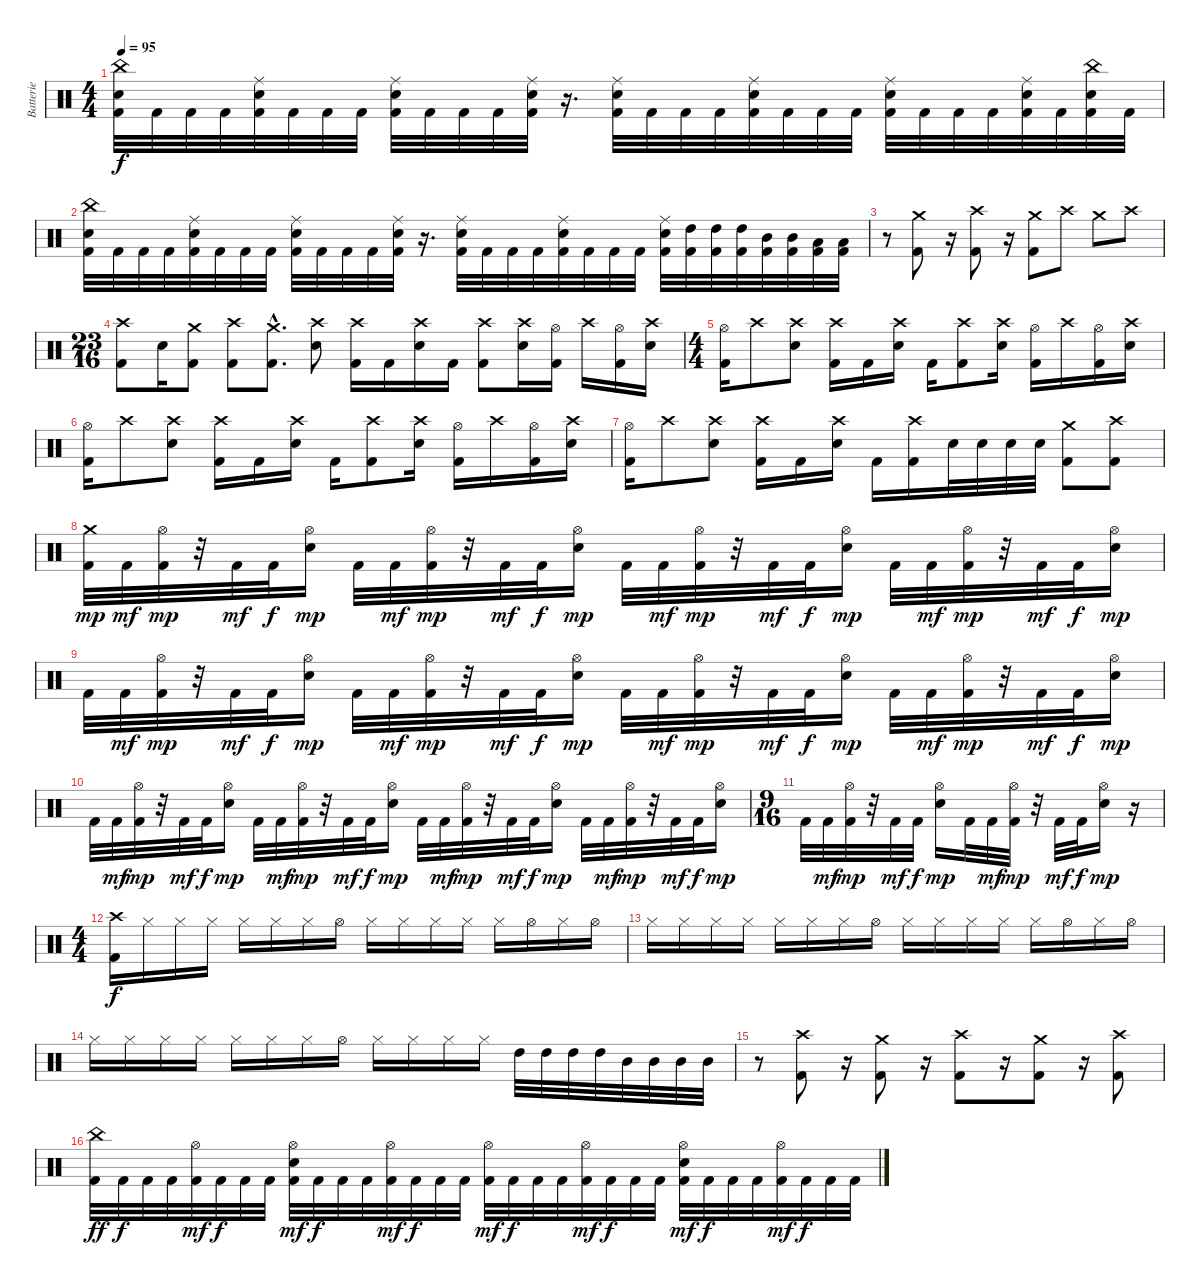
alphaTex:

\track ("Batterie" "Batterie") {instrument percussion}
\staff {score}
\articulation defaults
\ts (4 4)
\tempo 95
\clef neutral
\ks c
("China (hit)" "Electric Snare (hit)" "Kick (hit) 2").32{dy f} "Kick (hit) 2".32 "Kick (hit) 2".32 "Kick (hit) 2".32 ("Ride (middle)" "Electric Snare (hit)" "Kick (hit) 2").32 "Kick (hit) 2".32 "Kick (hit) 2".32 "Kick (hit) 2".32 ("Ride (middle)" "Electric Snare (hit)" "Kick (hit) 2").32 "Kick (hit) 2".32 "Kick (hit) 2".32 "Kick (hit) 2".32 ("Ride (middle)" "Electric Snare (hit)" "Kick (hit) 2").32 r.16{d} ("Ride (middle)" "Electric Snare (hit)" "Kick (hit) 2").32 "Kick (hit) 2".32 "Kick (hit) 2".32 "Kick (hit) 2".32 ("Ride (middle)" "Electric Snare (hit)" "Kick (hit) 2").32 "Kick (hit) 2".32 "Kick (hit) 2".32 "Kick (hit) 2".32 ("Ride (middle)" "Electric Snare (hit)" "Kick (hit) 2").32 "Kick (hit) 2".32 "Kick (hit) 2".32 "Kick (hit) 2".32 ("Ride (middle)" "Electric Snare (hit)" "Kick (hit) 2").32 "Kick (hit) 2".32 ("China (hit)" "Electric Snare (hit)" "Kick (hit) 2").32 "Kick (hit) 2".32 |
("China (hit)" "Electric Snare (hit)" "Kick (hit) 2").32 "Kick (hit) 2".32 "Kick (hit) 2".32 "Kick (hit) 2".32 ("Ride (middle)" "Electric Snare (hit)" "Kick (hit) 2").32 "Kick (hit) 2".32 "Kick (hit) 2".32 "Kick (hit) 2".32 ("Ride (middle)" "Electric Snare (hit)" "Kick (hit) 2").32 "Kick (hit) 2".32 "Kick (hit) 2".32 "Kick (hit) 2".32 ("Ride (middle)" "Electric Snare (hit)" "Kick (hit) 2").32 r.16{d} ("Ride (middle)" "Electric Snare (hit)" "Kick (hit) 2").32 "Kick (hit) 2".32 "Kick (hit) 2".32 "Kick (hit) 2".32 ("Ride (middle)" "Electric Snare (hit)" "Kick (hit) 2").32 "Kick (hit) 2".32 "Kick (hit) 2".32 "Kick (hit) 2".32 ("Ride (middle)" "Electric Snare (hit)" "Kick (hit) 2").32 ("High Tom (hit)" "Kick (hit) 2").32 ("High Tom (hit)" "Kick (hit) 2").32 ("High Tom (hit)" "Kick (hit) 2").32 ("Mid Tom (hit)" "Kick (hit) 2").32 ("Mid Tom (hit)" "Kick (hit) 2").32 ("Low Tom (hit)" "Kick (hit) 2").32 ("Low Tom (hit)" "Kick (hit) 2").32 |
r.8 ("Crash medium (hit)" "Kick (hit) 2").8 r.16 ("Crash high (hit)" "Kick (hit) 2").8 r.16 ("Crash medium (hit)" "Kick (hit) 2").8 "Crash high (hit)".8 "Crash medium (hit)".8 "Crash high (hit)".8 |
\ts (23 16)
("Crash high (hit)" "Kick (hit) 2").8 "Electric Snare (hit)".16 ("Crash medium (hit)" "Kick (hit) 2").8 ("Crash high (hit)" "Kick (hit) 2").8 ("Crash medium (hit)"{hac} "Kick (hit) 2"{hac}).8{d} ("Crash high (hit)" "Electric Snare (hit)").8 ("Crash high (hit)" "Kick (hit) 2").16 "Kick (hit) 2".16 ("Crash high (hit)" "Electric Snare (hit)").16 "Kick (hit) 2".16 ("Crash high (hit)" "Kick (hit) 2").8 ("Crash high (hit)" "Electric Snare (hit)").16 ("Hi-Hat (open)" "Kick (hit) 2").16 "Crash high (hit)".16 ("Hi-Hat (open)" "Kick (hit) 2").16 ("Crash high (hit)" "Electric Snare (hit)").16 |
\ts (4 4)
("Hi-Hat (open)" "Kick (hit) 2").16 "Crash high (hit)".8 ("Crash high (hit)" "Electric Snare (hit)").8 ("Crash high (hit)" "Kick (hit) 2").16 "Kick (hit) 2".16 ("Crash high (hit)" "Electric Snare (hit)").16 "Kick (hit) 2".16 ("Crash high (hit)" "Kick (hit) 2").8 ("Crash high (hit)" "Electric Snare (hit)").16 ("Hi-Hat (open)" "Kick (hit) 2").16 "Crash high (hit)".16 ("Hi-Hat (open)" "Kick (hit) 2").16 ("Crash high (hit)" "Electric Snare (hit)").16 |
("Hi-Hat (open)" "Kick (hit) 2").16 "Crash high (hit)".8 ("Crash high (hit)" "Electric Snare (hit)").8 ("Crash high (hit)" "Kick (hit) 2").16 "Kick (hit) 2".16 ("Crash high (hit)" "Electric Snare (hit)").16 "Kick (hit) 2".16 ("Crash high (hit)" "Kick (hit) 2").8 ("Crash high (hit)" "Electric Snare (hit)").16 ("Hi-Hat (open)" "Kick (hit) 2").16 "Crash high (hit)".16 ("Hi-Hat (open)" "Kick (hit) 2").16 ("Crash high (hit)" "Electric Snare (hit)").16 |
("Hi-Hat (open)" "Kick (hit) 2").16 "Crash high (hit)".8 ("Crash high (hit)" "Electric Snare (hit)").8 ("Crash high (hit)" "Kick (hit) 2").16 "Kick (hit) 2".16 ("Crash high (hit)" "Electric Snare (hit)").16 "Kick (hit) 2".16 ("Crash high (hit)" "Kick (hit) 2").16 "Electric Snare (hit)".32 "Electric Snare (hit)".32 "Electric Snare (hit)".32 "Electric Snare (hit)".32 ("Crash medium (hit)" "Kick (hit) 2").8 ("Crash high (hit)" "Kick (hit) 2").8 |
("Crash medium (hit)" "Kick (hit) 2").32{dy mp} "Kick (hit) 2".32{dy mf} ("Hi-Hat (open)" "Kick (hit) 2").32{dy mp} r.32 "Kick (hit) 2".32{dy mf} "Kick (hit) 2".32{dy f} ("Hi-Hat (open)" "Electric Snare (hit)").16{dy mp} "Kick (hit) 2".32 "Kick (hit) 2".32{dy mf} ("Hi-Hat (open)" "Kick (hit) 2").32{dy mp} r.32 "Kick (hit) 2".32{dy mf} "Kick (hit) 2".32{dy f} ("Hi-Hat (open)" "Electric Snare (hit)").16{dy mp} "Kick (hit) 2".32 "Kick (hit) 2".32{dy mf} ("Hi-Hat (open)" "Kick (hit) 2").32{dy mp} r.32 "Kick (hit) 2".32{dy mf} "Kick (hit) 2".32{dy f} ("Hi-Hat (open)" "Electric Snare (hit)").16{dy mp} "Kick (hit) 2".32 "Kick (hit) 2".32{dy mf} ("Hi-Hat (open)" "Kick (hit) 2").32{dy mp} r.32 "Kick (hit) 2".32{dy mf} "Kick (hit) 2".32{dy f} ("Hi-Hat (open)" "Electric Snare (hit)").16{dy mp} |
"Kick (hit) 2".32 "Kick (hit) 2".32{dy mf} ("Hi-Hat (open)" "Kick (hit) 2").32{dy mp} r.32 "Kick (hit) 2".32{dy mf} "Kick (hit) 2".32{dy f} ("Hi-Hat (open)" "Electric Snare (hit)").16{dy mp} "Kick (hit) 2".32 "Kick (hit) 2".32{dy mf} ("Hi-Hat (open)" "Kick (hit) 2").32{dy mp} r.32 "Kick (hit) 2".32{dy mf} "Kick (hit) 2".32{dy f} ("Hi-Hat (open)" "Electric Snare (hit)").16{dy mp} "Kick (hit) 2".32 "Kick (hit) 2".32{dy mf} ("Hi-Hat (open)" "Kick (hit) 2").32{dy mp} r.32 "Kick (hit) 2".32{dy mf} "Kick (hit) 2".32{dy f} ("Hi-Hat (open)" "Electric Snare (hit)").16{dy mp} "Kick (hit) 2".32 "Kick (hit) 2".32{dy mf} ("Hi-Hat (open)" "Kick (hit) 2").32{dy mp} r.32 "Kick (hit) 2".32{dy mf} "Kick (hit) 2".32{dy f} ("Hi-Hat (open)" "Electric Snare (hit)").16{dy mp} |
"Kick (hit) 2".32 "Kick (hit) 2".32{dy mf} ("Hi-Hat (open)" "Kick (hit) 2").32{dy mp} r.32 "Kick (hit) 2".32{dy mf} "Kick (hit) 2".32{dy f} ("Hi-Hat (open)" "Electric Snare (hit)").16{dy mp} "Kick (hit) 2".32 "Kick (hit) 2".32{dy mf} ("Hi-Hat (open)" "Kick (hit) 2").32{dy mp} r.32 "Kick (hit) 2".32{dy mf} "Kick (hit) 2".32{dy f} ("Hi-Hat (open)" "Electric Snare (hit)").16{dy mp} "Kick (hit) 2".32 "Kick (hit) 2".32{dy mf} ("Hi-Hat (open)" "Kick (hit) 2").32{dy mp} r.32 "Kick (hit) 2".32{dy mf} "Kick (hit) 2".32{dy f} ("Hi-Hat (open)" "Electric Snare (hit)").16{dy mp} "Kick (hit) 2".32 "Kick (hit) 2".32{dy mf} ("Hi-Hat (open)" "Kick (hit) 2").32{dy mp} r.32 "Kick (hit) 2".32{dy mf} "Kick (hit) 2".32{dy f} ("Hi-Hat (open)" "Electric Snare (hit)").16{dy mp} |
\ts (9 16)
"Kick (hit) 2".32 "Kick (hit) 2".32{dy mf} ("Hi-Hat (open)" "Kick (hit) 2").32{dy mp} r.32 "Kick (hit) 2".32{dy mf} "Kick (hit) 2".32{dy f} ("Hi-Hat (open)" "Electric Snare (hit)").16{dy mp} "Kick (hit) 2".32 "Kick (hit) 2".32{dy mf} ("Hi-Hat (open)" "Kick (hit) 2").32{dy mp} r.32 "Kick (hit) 2".32{dy mf} "Kick (hit) 2".32{dy f} ("Hi-Hat (open)" "Electric Snare (hit)").16{dy mp} r.16 |
\ts (4 4)
("Crash high (hit)" "Kick (hit) 2").16{dy f} "Hi-Hat (closed)".16 "Hi-Hat (closed)".16 "Hi-Hat (closed)".16 "Hi-Hat (closed)".16 "Hi-Hat (closed)".16 "Hi-Hat (closed)".16 "Hi-Hat (open)".16 "Hi-Hat (closed)".16 "Hi-Hat (closed)".16 "Hi-Hat (closed)".16 "Hi-Hat (closed)".16 "Hi-Hat (closed)".16 "Hi-Hat (open)".16 "Hi-Hat (closed)".16 "Hi-Hat (open)".16 |
"Hi-Hat (closed)".16 "Hi-Hat (closed)".16 "Hi-Hat (closed)".16 "Hi-Hat (closed)".16 "Hi-Hat (closed)".16 "Hi-Hat (closed)".16 "Hi-Hat (closed)".16 "Hi-Hat (open)".16 "Hi-Hat (closed)".16 "Hi-Hat (closed)".16 "Hi-Hat (closed)".16 "Hi-Hat (closed)".16 "Hi-Hat (closed)".16 "Hi-Hat (open)".16 "Hi-Hat (closed)".16 "Hi-Hat (open)".16 |
"Hi-Hat (closed)".16 "Hi-Hat (closed)".16 "Hi-Hat (closed)".16 "Hi-Hat (closed)".16 "Hi-Hat (closed)".16 "Hi-Hat (closed)".16 "Hi-Hat (closed)".16 "Hi-Hat (open)".16 "Hi-Hat (closed)".16 "Hi-Hat (closed)".16 "Hi-Hat (closed)".16 "Hi-Hat (closed)".16 "High Tom (hit)".32 "High Tom (hit)".32 "High Tom (hit)".32 "High Tom (hit)".32 "Mid Tom (hit)".32 "Mid Tom (hit)".32 "Mid Tom (hit)".32 "Mid Tom (hit)".32 |
r.8 ("Crash high (hit)" "Kick (hit) 2").8 r.16 ("Crash medium (hit)" "Kick (hit) 2").8 r.16 ("Crash high (hit)" "Kick (hit) 2").8 r.16 ("Crash medium (hit)" "Kick (hit) 2").8 r.16 ("Crash high (hit)" "Kick (hit) 2").8 |
("China (hit)" "Kick (hit) 2").32{dy ff} "Kick (hit) 2".32{dy f} "Kick (hit) 2".32 "Kick (hit) 2".32 ("Hi-Hat (open)" "Kick (hit) 2").32{dy mf} "Kick (hit) 2".32{dy f} "Kick (hit) 2".32 "Kick (hit) 2".32 ("Hi-Hat (open)" "Electric Snare (hit)" "Kick (hit) 2").32{dy mf} "Kick (hit) 2".32{dy f} "Kick (hit) 2".32 "Kick (hit) 2".32 ("Hi-Hat (open)" "Kick (hit) 2").32{dy mf} "Kick (hit) 2".32{dy f} "Kick (hit) 2".32 "Kick (hit) 2".32 ("Hi-Hat (open)" "Kick (hit) 2").32{dy mf} "Kick (hit) 2".32{dy f} "Kick (hit) 2".32 "Kick (hit) 2".32 ("Hi-Hat (open)" "Kick (hit) 2").32{dy mf} "Kick (hit) 2".32{dy f} "Kick (hit) 2".32 "Kick (hit) 2".32 ("Hi-Hat (open)" "Electric Snare (hit)" "Kick (hit) 2").32{dy mf} "Kick (hit) 2".32{dy f} "Kick (hit) 2".32 "Kick (hit) 2".32 ("Hi-Hat (open)" "Kick (hit) 2").32{dy mf} "Kick (hit) 2".32{dy f} "Kick (hit) 2".32 "Kick (hit) 2".32
